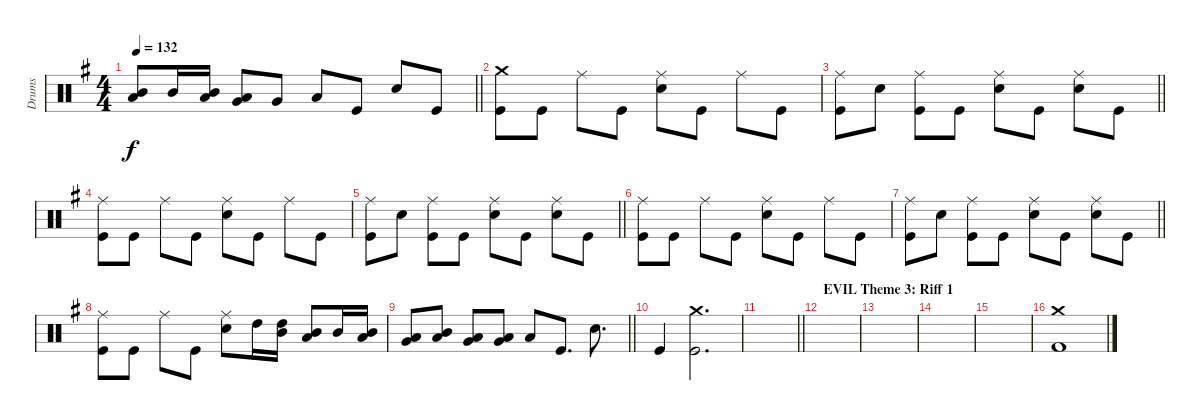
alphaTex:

\track ("Drums" "Drums") {instrument percussion}
\staff {score}
\articulation defaults
\ts (4 4)
\tempo 132
\clef neutral
\barLineRight lightlight
\ks g
("Mid Tom (hit)" "Low Tom (hit)").8{dy f balance 6} "Mid Tom (hit)".16 ("Mid Tom (hit)" "Low Tom (hit)").16 ("Low Tom (hit)" "Very Low Tom (hit)").8{balance 10} "Very Low Tom (hit)".8 "Low Floor Tom (hit)".8 "Kick (hit)".8{balance 8} "Snare (hit) 2".8 "Kick (hit)".8 |
("Crash medium (hit)" "Kick (hit)").8 "Kick (hit)".8 "Ride (middle)".8 "Kick (hit)".8 ("Ride (middle)" "Snare (hit) 2").8 "Kick (hit)".8 "Ride (middle)".8 "Kick (hit)".8 |
\barLineRight lightlight
("Ride (middle)" "Kick (hit)").8 "Snare (hit) 2".8 ("Ride (middle)" "Kick (hit)").8 "Kick (hit)".8 ("Ride (middle)" "Snare (hit) 2").8 "Kick (hit)".8 ("Ride (middle)" "Snare (hit) 2").8 "Kick (hit)".8 |
("Ride (middle)" "Kick (hit)").8 "Kick (hit)".8 "Ride (middle)".8 "Kick (hit)".8 ("Ride (middle)" "Snare (hit) 2").8 "Kick (hit)".8 "Ride (middle)".8 "Kick (hit)".8 |
\barLineRight lightlight
("Ride (middle)" "Kick (hit)").8 "Snare (hit) 2".8 ("Ride (middle)" "Kick (hit)").8 "Kick (hit)".8 ("Ride (middle)" "Snare (hit) 2").8 "Kick (hit)".8 ("Ride (middle)" "Snare (hit) 2").8 "Kick (hit)".8 |
("Ride (middle)" "Kick (hit)").8 "Kick (hit)".8 "Ride (middle)".8 "Kick (hit)".8 ("Ride (middle)" "Snare (hit) 2").8 "Kick (hit)".8 "Ride (middle)".8 "Kick (hit)".8 |
\barLineRight lightlight
("Ride (middle)" "Kick (hit)").8 "Snare (hit) 2".8 ("Ride (middle)" "Kick (hit)").8 "Kick (hit)".8 ("Ride (middle)" "Snare (hit) 2").8 "Kick (hit)".8 ("Ride (middle)" "Snare (hit) 2").8 "Kick (hit)".8 |
("Ride (middle)" "Kick (hit)").8 "Kick (hit)".8 "Ride (middle)".8 "Kick (hit)".8 ("Ride (middle)" "Snare (hit) 2").8 "High Tom (hit)".16 ("High Tom (hit)" "Mid Tom (hit)").16 ("Mid Tom (hit)" "Low Tom (hit)").8{balance 6} "Mid Tom (hit)".16 ("Mid Tom (hit)" "Low Tom (hit)").16 |
\barLineRight lightlight
("Low Tom (hit)" "Very Low Tom (hit)").8{balance 10} ("Mid Tom (hit)" "Low Tom (hit)").8 ("Low Tom (hit)" "Very Low Tom (hit)").8 ("Very Low Tom (hit)" "Low Floor Tom (hit)").8 "Low Floor Tom (hit)".8 "Kick (hit)".8{d balance 8} "Snare (hit) 2".8{d} |
"Kick (hit)".4 ("Crash medium (hit)" "Kick (hit)").2{d} |
\barLineRight lightlight
|
\section ("" "EVIL Theme 3: Riff 1")
|
|
|
|
("Crash medium (hit)" "Kick (hit) 2").1
